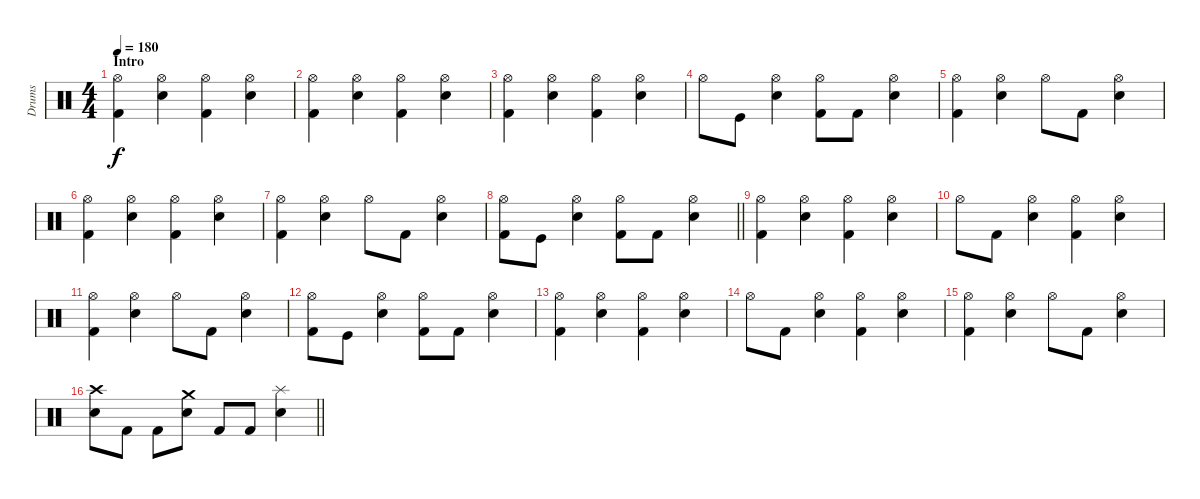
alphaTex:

\track ("Drums" "Drums") {instrument percussion}
\staff {score}
\articulation defaults
\ts (4 4)
\section ("" "Intro")
\tempo 180
\clef neutral
\ks c
("Hi-Hat (open)" "Kick (hit) 2").4{dy f} ("Hi-Hat (open)" "Electric Snare (hit)").4 ("Hi-Hat (open)" "Kick (hit) 2").4 ("Hi-Hat (open)" "Electric Snare (hit)").4 |
("Hi-Hat (open)" "Kick (hit) 2").4 ("Hi-Hat (open)" "Electric Snare (hit)").4 ("Hi-Hat (open)" "Kick (hit) 2").4 ("Hi-Hat (open)" "Electric Snare (hit)").4 |
("Hi-Hat (open)" "Kick (hit) 2").4 ("Hi-Hat (open)" "Electric Snare (hit)").4 ("Hi-Hat (open)" "Kick (hit) 2").4 ("Hi-Hat (open)" "Electric Snare (hit)").4 |
"Hi-Hat (open)".8 "Kick (hit)".8 ("Hi-Hat (open)" "Electric Snare (hit)").4 ("Hi-Hat (open)" "Kick (hit) 2").8 "Kick (hit) 2".8 ("Hi-Hat (open)" "Electric Snare (hit)").4 |
("Hi-Hat (open)" "Kick (hit) 2").4 ("Hi-Hat (open)" "Electric Snare (hit)").4 "Hi-Hat (open)".8 "Kick (hit) 2".8 ("Hi-Hat (open)" "Electric Snare (hit)").4 |
("Hi-Hat (open)" "Kick (hit) 2").4 ("Hi-Hat (open)" "Electric Snare (hit)").4 ("Hi-Hat (open)" "Kick (hit) 2").4 ("Hi-Hat (open)" "Electric Snare (hit)").4 |
("Hi-Hat (open)" "Kick (hit) 2").4 ("Hi-Hat (open)" "Electric Snare (hit)").4 "Hi-Hat (open)".8 "Kick (hit) 2".8 ("Hi-Hat (open)" "Electric Snare (hit)").4 |
\barLineRight lightlight
("Hi-Hat (open)" "Kick (hit) 2").8 "Kick (hit)".8 ("Hi-Hat (open)" "Electric Snare (hit)").4 ("Hi-Hat (open)" "Kick (hit) 2").8 "Kick (hit) 2".8 ("Hi-Hat (open)" "Electric Snare (hit)").4 |
("Hi-Hat (open)" "Kick (hit) 2").4 ("Hi-Hat (open)" "Electric Snare (hit)").4 ("Hi-Hat (open)" "Kick (hit) 2").4 ("Hi-Hat (open)" "Electric Snare (hit)").4 |
"Hi-Hat (open)".8 "Kick (hit) 2".8 ("Hi-Hat (open)" "Electric Snare (hit)").4 ("Hi-Hat (open)" "Kick (hit) 2").4 ("Hi-Hat (open)" "Electric Snare (hit)").4 |
("Hi-Hat (open)" "Kick (hit) 2").4 ("Hi-Hat (open)" "Electric Snare (hit)").4 "Hi-Hat (open)".8 "Kick (hit) 2".8 ("Hi-Hat (open)" "Electric Snare (hit)").4 |
("Hi-Hat (open)" "Kick (hit) 2").8 "Kick (hit)".8 ("Hi-Hat (open)" "Electric Snare (hit)").4 ("Hi-Hat (open)" "Kick (hit) 2").8 "Kick (hit) 2".8 ("Hi-Hat (open)" "Electric Snare (hit)").4 |
("Hi-Hat (open)" "Kick (hit) 2").4 ("Hi-Hat (open)" "Electric Snare (hit)").4 ("Hi-Hat (open)" "Kick (hit) 2").4 ("Hi-Hat (open)" "Electric Snare (hit)").4 |
"Hi-Hat (open)".8 "Kick (hit) 2".8 ("Hi-Hat (open)" "Electric Snare (hit)").4 ("Hi-Hat (open)" "Kick (hit) 2").4 ("Hi-Hat (open)" "Electric Snare (hit)").4 |
("Hi-Hat (open)" "Kick (hit) 2").4 ("Hi-Hat (open)" "Electric Snare (hit)").4 "Hi-Hat (open)".8 "Kick (hit) 2".8 ("Hi-Hat (open)" "Electric Snare (hit)").4 |
\barLineRight lightlight
("Crash high (hit)" "Electric Snare (hit)").8 "Kick (hit) 2".8 "Kick (hit) 2".8 ("Crash medium (hit)" "Electric Snare (hit)").8 "Kick (hit) 2".8 "Kick (hit) 2".8 ("Splash (hit)" "Electric Snare (hit)").4
